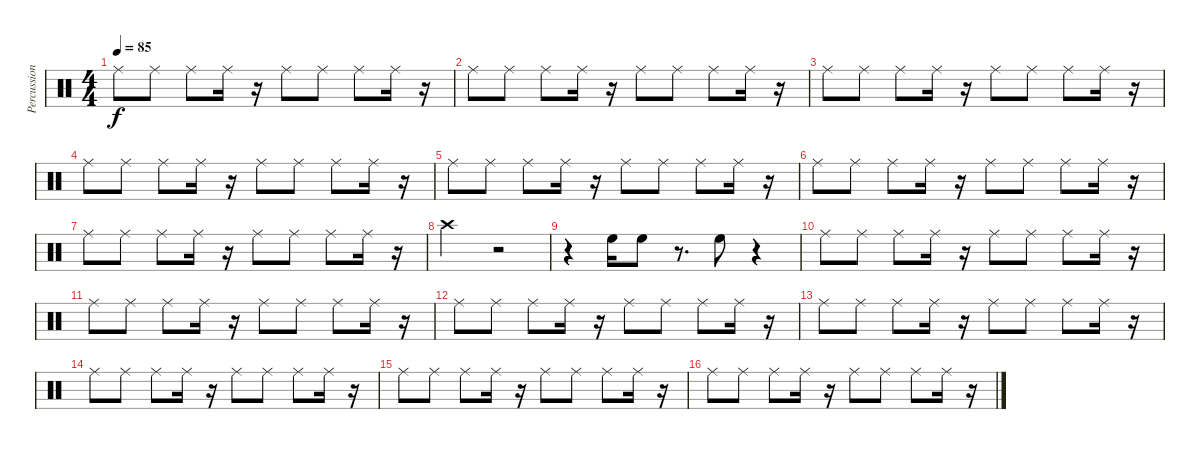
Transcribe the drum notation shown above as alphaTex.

\track ("Percussion" "Percussion") {instrument percussion}
\staff {score}
\articulation defaults
\ts (4 4)
\tempo 85
\clef neutral
\ks c "Ride (middle)".8{dy f} "Ride (middle)".8 "Ride (middle)".8 "Ride (middle)".16
r.16 "Ride (middle)".8 "Ride (middle)".8 "Ride (middle)".8 "Ride (middle)".16 r.16 |
"Ride (middle)".8 "Ride (middle)".8 "Ride (middle)".8 "Ride (middle)".16 r.16 "Ride (middle)".8 "Ride (middle)".8 "Ride (middle)".8 "Ride (middle)".16 r.16 |
"Ride (middle)".8 "Ride (middle)".8 "Ride (middle)".8 "Ride (middle)".16 r.16 "Ride (middle)".8 "Ride (middle)".8 "Ride (middle)".8 "Ride (middle)".16 r.16 |
"Ride (middle)".8 "Ride (middle)".8 "Ride (middle)".8 "Ride (middle)".16 r.16 "Ride (middle)".8 "Ride (middle)".8 "Ride (middle)".8 "Ride (middle)".16 r.16 |
"Ride (middle)".8 "Ride (middle)".8 "Ride (middle)".8 "Ride (middle)".16 r.16 "Ride (middle)".8 "Ride (middle)".8 "Ride (middle)".8 "Ride (middle)".16 r.16 |
"Ride (middle)".8 "Ride (middle)".8 "Ride (middle)".8 "Ride (middle)".16 r.16 "Ride (middle)".8 "Ride (middle)".8 "Ride (middle)".8 "Ride (middle)".16 r.16 |
"Ride (middle)".8 "Ride (middle)".8 "Ride (middle)".8 "Ride (middle)".16 r.16 "Ride (middle)".8 "Ride (middle)".8 "Ride (middle)".8 "Ride (middle)".16 r.16 |
"Crash high (hit)".2 r.2 |
r.4 "High Floor Tom (hit)".16 "High Floor Tom (hit)".8 r.8{d} "High Floor Tom (hit)".8 r.4 |
"Ride (middle)".8 "Ride (middle)".8 "Ride (middle)".8 "Ride (middle)".16 r.16 "Ride (middle)".8 "Ride (middle)".8 "Ride (middle)".8 "Ride (middle)".16 r.16 |
"Ride (middle)".8 "Ride (middle)".8 "Ride (middle)".8 "Ride (middle)".16 r.16 "Ride (middle)".8 "Ride (middle)".8 "Ride (middle)".8 "Ride (middle)".16 r.16 |
"Ride (middle)".8 "Ride (middle)".8 "Ride (middle)".8 "Ride (middle)".16 r.16 "Ride (middle)".8 "Ride (middle)".8 "Ride (middle)".8 "Ride (middle)".16 r.16 |
"Ride (middle)".8 "Ride (middle)".8 "Ride (middle)".8 "Ride (middle)".16 r.16 "Ride (middle)".8 "Ride (middle)".8 "Ride (middle)".8 "Ride (middle)".16 r.16 |
"Ride (middle)".8 "Ride (middle)".8 "Ride (middle)".8 "Ride (middle)".16 r.16 "Ride (middle)".8 "Ride (middle)".8 "Ride (middle)".8 "Ride (middle)".16 r.16 |
"Ride (middle)".8 "Ride (middle)".8 "Ride (middle)".8 "Ride (middle)".16 r.16 "Ride (middle)".8 "Ride (middle)".8 "Ride (middle)".8 "Ride (middle)".16 r.16 |
"Ride (middle)".8 "Ride (middle)".8 "Ride (middle)".8 "Ride (middle)".16 r.16 "Ride (middle)".8 "Ride (middle)".8 "Ride (middle)".8 "Ride (middle)".16 r.16
